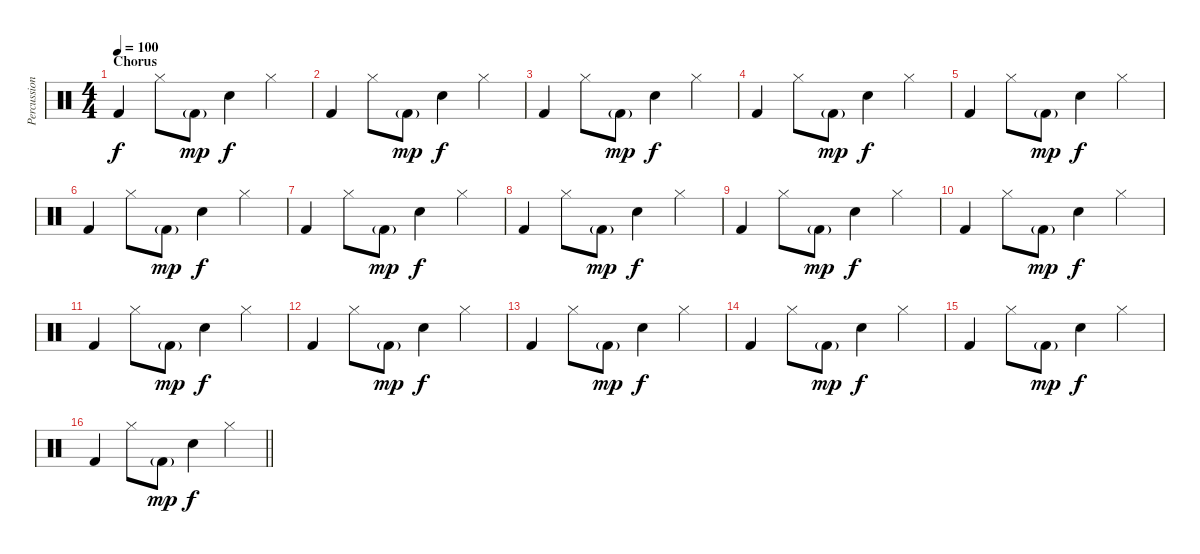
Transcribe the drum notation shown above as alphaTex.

\track ("Percussion" "Percussion") {instrument percussion}
\staff {score}
\articulation defaults
\ts (4 4)
\section ("" "Chorus")
\tempo 100
\clef neutral
\ks c "Kick (hit) 2".4{dy f} "Hi-Hat (closed)".8 "Kick (hit) 2"{g}.8{dy mp} "Snare (hit) 2".4{dy f} "Hi-Hat (closed)".4
|
"Kick (hit) 2".4 "Hi-Hat (closed)".8 "Kick (hit) 2"{g}.8{dy mp} "Snare (hit) 2".4{dy f} "Hi-Hat (closed)".4 |
"Kick (hit) 2".4 "Hi-Hat (closed)".8 "Kick (hit) 2"{g}.8{dy mp} "Snare (hit) 2".4{dy f} "Hi-Hat (closed)".4 |
"Kick (hit) 2".4 "Hi-Hat (closed)".8 "Kick (hit) 2"{g}.8{dy mp} "Snare (hit) 2".4{dy f} "Hi-Hat (closed)".4 |
"Kick (hit) 2".4 "Hi-Hat (closed)".8 "Kick (hit) 2"{g}.8{dy mp} "Snare (hit) 2".4{dy f} "Hi-Hat (closed)".4 |
"Kick (hit) 2".4 "Hi-Hat (closed)".8 "Kick (hit) 2"{g}.8{dy mp} "Snare (hit) 2".4{dy f} "Hi-Hat (closed)".4 |
"Kick (hit) 2".4 "Hi-Hat (closed)".8 "Kick (hit) 2"{g}.8{dy mp} "Snare (hit) 2".4{dy f} "Hi-Hat (closed)".4 |
"Kick (hit) 2".4 "Hi-Hat (closed)".8 "Kick (hit) 2"{g}.8{dy mp} "Snare (hit) 2".4{dy f} "Hi-Hat (closed)".4 |
"Kick (hit) 2".4 "Hi-Hat (closed)".8 "Kick (hit) 2"{g}.8{dy mp} "Snare (hit) 2".4{dy f} "Hi-Hat (closed)".4 |
"Kick (hit) 2".4 "Hi-Hat (closed)".8 "Kick (hit) 2"{g}.8{dy mp} "Snare (hit) 2".4{dy f} "Hi-Hat (closed)".4 |
"Kick (hit) 2".4 "Hi-Hat (closed)".8 "Kick (hit) 2"{g}.8{dy mp} "Snare (hit) 2".4{dy f} "Hi-Hat (closed)".4 |
"Kick (hit) 2".4 "Hi-Hat (closed)".8 "Kick (hit) 2"{g}.8{dy mp} "Snare (hit) 2".4{dy f} "Hi-Hat (closed)".4 |
"Kick (hit) 2".4 "Hi-Hat (closed)".8 "Kick (hit) 2"{g}.8{dy mp} "Snare (hit) 2".4{dy f} "Hi-Hat (closed)".4 |
"Kick (hit) 2".4 "Hi-Hat (closed)".8 "Kick (hit) 2"{g}.8{dy mp} "Snare (hit) 2".4{dy f} "Hi-Hat (closed)".4 |
"Kick (hit) 2".4 "Hi-Hat (closed)".8 "Kick (hit) 2"{g}.8{dy mp} "Snare (hit) 2".4{dy f} "Hi-Hat (closed)".4 |
\barLineRight lightlight "Kick (hit) 2".4 "Hi-Hat (closed)".8 "Kick (hit) 2"{g}.8{dy mp} "Snare (hit) 2".4{dy f} "Hi-Hat (closed)".4
